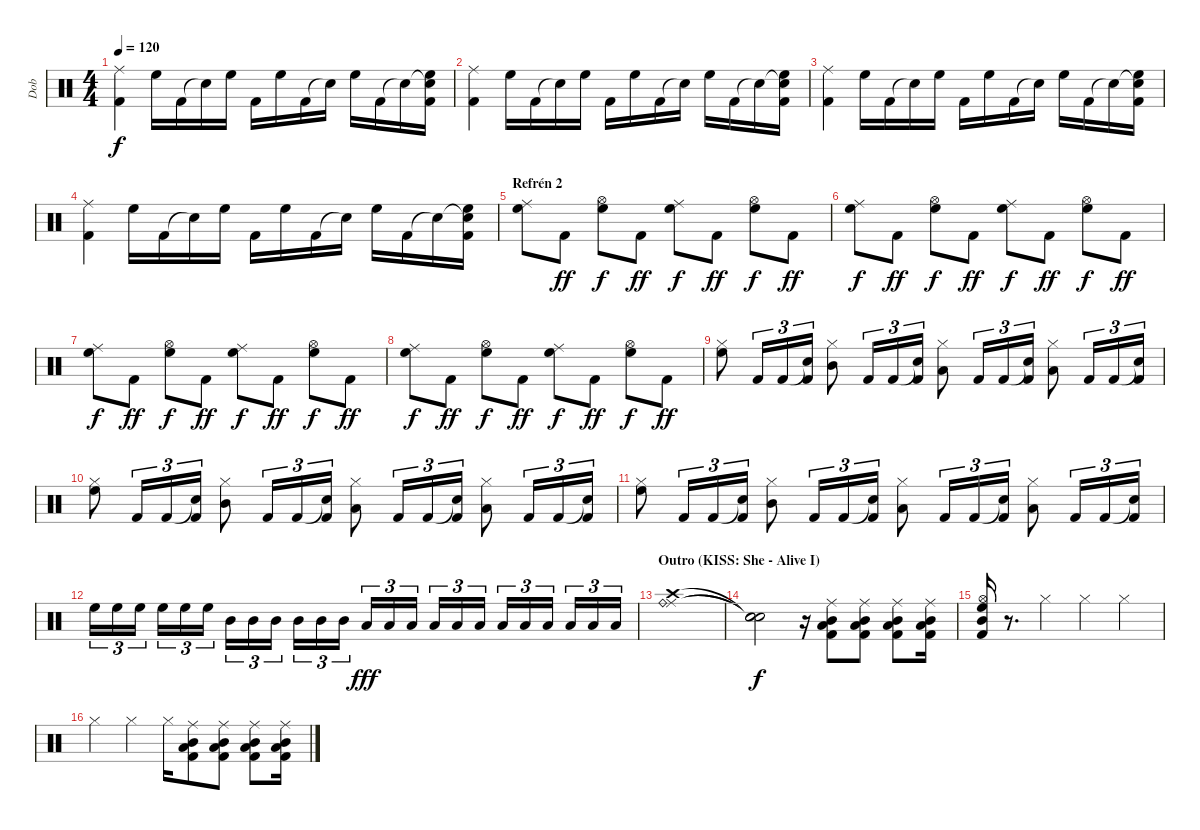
\track ("Dob" "Dob") {instrument percussion}
\staff {score}
\articulation defaults
\ts (4 4)
\tempo 120
\clef neutral
\ks c
("Ride (middle)" "Kick (hit) 2").4{dy f} "High Floor Tom (hit)".16 "Kick (hit) 2".16 "Snare (hit)"{t}.16 "High Floor Tom (hit)".16 "Kick (hit) 2".16 "High Floor Tom (hit)".16 "Kick (hit) 2".16 "Snare (hit)"{t}.16 "High Floor Tom (hit)".16 "Kick (hit) 2".16 "Snare (hit)"{t}.16 ("Snare (hit)"{t} "High Floor Tom (hit)" "Kick (hit) 2").16 |
("Ride (middle)" "Kick (hit) 2").4 "High Floor Tom (hit)".16 "Kick (hit) 2".16 "Snare (hit)"{t}.16 "High Floor Tom (hit)".16 "Kick (hit) 2".16 "High Floor Tom (hit)".16 "Kick (hit) 2".16 "Snare (hit)"{t}.16 "High Floor Tom (hit)".16 "Kick (hit) 2".16 "Snare (hit)"{t}.16 ("Snare (hit)"{t} "High Floor Tom (hit)" "Kick (hit) 2").16 |
("Ride (middle)" "Kick (hit) 2").4 "High Floor Tom (hit)".16 "Kick (hit) 2".16 "Snare (hit)"{t}.16 "High Floor Tom (hit)".16 "Kick (hit) 2".16 "High Floor Tom (hit)".16 "Kick (hit) 2".16 "Snare (hit)"{t}.16 "High Floor Tom (hit)".16 "Kick (hit) 2".16 "Snare (hit)"{t}.16 ("Snare (hit)"{t} "High Floor Tom (hit)" "Kick (hit) 2").16 |
("Ride (middle)" "Kick (hit) 2").4 "High Floor Tom (hit)".16 "Kick (hit) 2".16 "Snare (hit)"{t}.16 "High Floor Tom (hit)".16 "Kick (hit) 2".16 "High Floor Tom (hit)".16 "Kick (hit) 2".16 "Snare (hit)"{t}.16 "High Floor Tom (hit)".16 "Kick (hit) 2".16 "Snare (hit)"{t}.16 ("Snare (hit)"{t} "High Floor Tom (hit)" "Kick (hit) 2").16 |
\section ("" "Refrén 2")
("Ride (middle)" "High Floor Tom (hit)").8 "Kick (hit) 2".8{dy ff} ("Hi-Hat (open)" "High Floor Tom (hit)").8{dy f} "Kick (hit) 2".8{dy ff} ("Ride (middle)" "High Floor Tom (hit)").8{dy f} "Kick (hit) 2".8{dy ff} ("Hi-Hat (open)" "High Floor Tom (hit)").8{dy f} "Kick (hit) 2".8{dy ff} |
("Ride (middle)" "High Floor Tom (hit)").8{dy f} "Kick (hit) 2".8{dy ff} ("Hi-Hat (open)" "High Floor Tom (hit)").8{dy f} "Kick (hit) 2".8{dy ff} ("Ride (middle)" "High Floor Tom (hit)").8{dy f} "Kick (hit) 2".8{dy ff} ("Hi-Hat (open)" "High Floor Tom (hit)").8{dy f} "Kick (hit) 2".8{dy ff} |
("Ride (middle)" "High Floor Tom (hit)").8{dy f} "Kick (hit) 2".8{dy ff} ("Hi-Hat (open)" "High Floor Tom (hit)").8{dy f} "Kick (hit) 2".8{dy ff} ("Ride (middle)" "High Floor Tom (hit)").8{dy f} "Kick (hit) 2".8{dy ff} ("Hi-Hat (open)" "High Floor Tom (hit)").8{dy f} "Kick (hit) 2".8{dy ff} |
("Ride (middle)" "High Floor Tom (hit)").8{dy f} "Kick (hit) 2".8{dy ff} ("Hi-Hat (open)" "High Floor Tom (hit)").8{dy f} "Kick (hit) 2".8{dy ff} ("Ride (middle)" "High Floor Tom (hit)").8{dy f} "Kick (hit) 2".8{dy ff} ("Hi-Hat (open)" "High Floor Tom (hit)").8{dy f} "Kick (hit) 2".8{dy ff} |
("Hi-Hat (closed)" "High Floor Tom (hit)").8 "Kick (hit) 2".16{tu (3 2)} "Kick (hit) 2".16{tu (3 2)} ("Snare (hit)"{t} "Kick (hit) 2").16{tu (3 2)} ("Hi-Hat (closed)" "Mid Tom (hit)").8 "Kick (hit) 2".16{tu (3 2)} "Kick (hit) 2".16{tu (3 2)} ("Snare (hit)"{t} "Kick (hit) 2").16{tu (3 2)} ("Hi-Hat (closed)" "Low Tom (hit)").8 "Kick (hit) 2".16{tu (3 2)} "Kick (hit) 2".16{tu (3 2)} ("Snare (hit)"{t} "Kick (hit) 2").16{tu (3 2)} ("Hi-Hat (closed)" "Low Floor Tom (hit)").8 "Kick (hit) 2".16{tu (3 2)} "Kick (hit) 2".16{tu (3 2)} ("Snare (hit)"{t} "Kick (hit) 2").16{tu (3 2)} |
("Hi-Hat (closed)" "High Floor Tom (hit)").8 "Kick (hit) 2".16{tu (3 2)} "Kick (hit) 2".16{tu (3 2)} ("Snare (hit)"{t} "Kick (hit) 2").16{tu (3 2)} ("Hi-Hat (closed)" "Mid Tom (hit)").8 "Kick (hit) 2".16{tu (3 2)} "Kick (hit) 2".16{tu (3 2)} ("Snare (hit)"{t} "Kick (hit) 2").16{tu (3 2)} ("Hi-Hat (closed)" "Low Tom (hit)").8 "Kick (hit) 2".16{tu (3 2)} "Kick (hit) 2".16{tu (3 2)} ("Snare (hit)"{t} "Kick (hit) 2").16{tu (3 2)} ("Hi-Hat (closed)" "Low Floor Tom (hit)").8 "Kick (hit) 2".16{tu (3 2)} "Kick (hit) 2".16{tu (3 2)} ("Snare (hit)"{t} "Kick (hit) 2").16{tu (3 2)} |
("Hi-Hat (closed)" "High Floor Tom (hit)").8 "Kick (hit) 2".16{tu (3 2)} "Kick (hit) 2".16{tu (3 2)} ("Snare (hit)"{t} "Kick (hit) 2").16{tu (3 2)} ("Hi-Hat (closed)" "Mid Tom (hit)").8 "Kick (hit) 2".16{tu (3 2)} "Kick (hit) 2".16{tu (3 2)} ("Snare (hit)"{t} "Kick (hit) 2").16{tu (3 2)} ("Hi-Hat (closed)" "Low Tom (hit)").8 "Kick (hit) 2".16{tu (3 2)} "Kick (hit) 2".16{tu (3 2)} ("Snare (hit)"{t} "Kick (hit) 2").16{tu (3 2)} ("Hi-Hat (closed)" "Low Floor Tom (hit)").8 "Kick (hit) 2".16{tu (3 2)} "Kick (hit) 2".16{tu (3 2)} ("Snare (hit)"{t} "Kick (hit) 2").16{tu (3 2)} |
"High Floor Tom (hit)".16{tu (3 2)} "High Floor Tom (hit)".16{tu (3 2)} "High Floor Tom (hit)".16{tu (3 2)} "High Floor Tom (hit)".16{tu (3 2)} "High Floor Tom (hit)".16{tu (3 2)} "High Floor Tom (hit)".16{tu (3 2)} "Mid Tom (hit)".16{tu (3 2)} "Mid Tom (hit)".16{tu (3 2)} "Mid Tom (hit)".16{tu (3 2)} "Mid Tom (hit)".16{tu (3 2)} "Mid Tom (hit)".16{tu (3 2)} "Mid Tom (hit)".16{tu (3 2)} "Low Floor Tom (hit)".16{tu (3 2) dy fff} "Low Floor Tom (hit)".16{tu (3 2)} "Low Floor Tom (hit)".16{tu (3 2)} "Low Floor Tom (hit)".16{tu (3 2)} "Low Floor Tom (hit)".16{tu (3 2)} "Low Floor Tom (hit)".16{tu (3 2)} "Low Tom (hit)".16{tu (3 2)} "Low Tom (hit)".16{tu (3 2)} "Low Tom (hit)".16{tu (3 2)} "Low Tom (hit)".16{tu (3 2)} "Low Tom (hit)".16{tu (3 2)} "Low Tom (hit)".16{tu (3 2)} |
\section ("" "Outro (KISS: She - Alive I)")
("Ride (middle)" "Ride (bell)" "Crash high (hit)").1 |
("Snare (hit)"{t} "Snare (hit)"{t} "Snare (hit)"{t}).2{dy f} r.16 ("Ride (middle)" "Mid Tom (hit)" "Low Tom (hit)" "Kick (hit) 2").8 ("Ride (middle)" "Mid Tom (hit)" "Low Tom (hit)" "Kick (hit) 2").8 ("Ride (middle)" "Mid Tom (hit)" "Low Tom (hit)" "Kick (hit) 2").8 ("Ride (middle)" "Mid Tom (hit)" "Low Tom (hit)" "Kick (hit) 2").16 |
("Hi-Hat (open)" "Mid Tom (hit)" "High Floor Tom (hit)" "Kick (hit) 2").16 r.8{d} "Hi-Hat (closed)".4 "Hi-Hat (closed)".4 "Hi-Hat (closed)".4 |
"Hi-Hat (closed)".4 "Hi-Hat (closed)".4 "Hi-Hat (closed)".16 ("Ride (middle)" "Mid Tom (hit)" "Low Tom (hit)" "Kick (hit) 2").8 ("Ride (middle)" "Mid Tom (hit)" "Low Tom (hit)" "Kick (hit) 2").8 ("Ride (middle)" "Mid Tom (hit)" "Low Tom (hit)" "Kick (hit) 2").8 ("Ride (middle)" "Mid Tom (hit)" "Low Tom (hit)" "Kick (hit) 2").16
